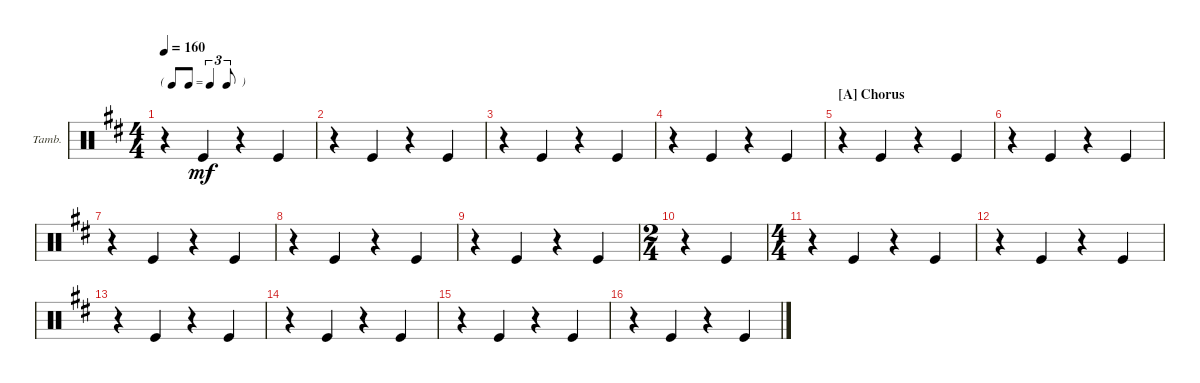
\defaultSystemsLayout 4
\bracketExtendMode groupsimilarinstruments
\firstSystemTrackNameOrientation horizontal
\otherSystemsTrackNameOrientation horizontal
\track ("Tambourine" "Tamb.") {instrument percussion}
\staff {score}
\articulation defaults
\ts (4 4)
\tf triplet8th
\tempo 160
\clef neutral
\ks bminor
r.4{dy mf} "Kick (hit)".4 r.4 "Kick (hit)".4 |
r.4 "Kick (hit)".4 r.4 "Kick (hit)".4 |
r.4 "Kick (hit)".4 r.4 "Kick (hit)".4 |
r.4 "Kick (hit)".4 r.4 "Kick (hit)".4 |
\section ("A" "Chorus")
r.4 "Kick (hit)".4 r.4 "Kick (hit)".4 |
r.4 "Kick (hit)".4 r.4 "Kick (hit)".4 |
r.4 "Kick (hit)".4 r.4 "Kick (hit)".4 |
r.4 "Kick (hit)".4 r.4 "Kick (hit)".4 |
r.4 "Kick (hit)".4 r.4 "Kick (hit)".4 |
\ts (2 4)
r.4 "Kick (hit)".4 |
\ts (4 4)
r.4 "Kick (hit)".4 r.4 "Kick (hit)".4 |
r.4 "Kick (hit)".4 r.4 "Kick (hit)".4 |
r.4 "Kick (hit)".4 r.4 "Kick (hit)".4 |
r.4 "Kick (hit)".4 r.4 "Kick (hit)".4 |
r.4 "Kick (hit)".4 r.4 "Kick (hit)".4 |
r.4 "Kick (hit)".4 r.4 "Kick (hit)".4
